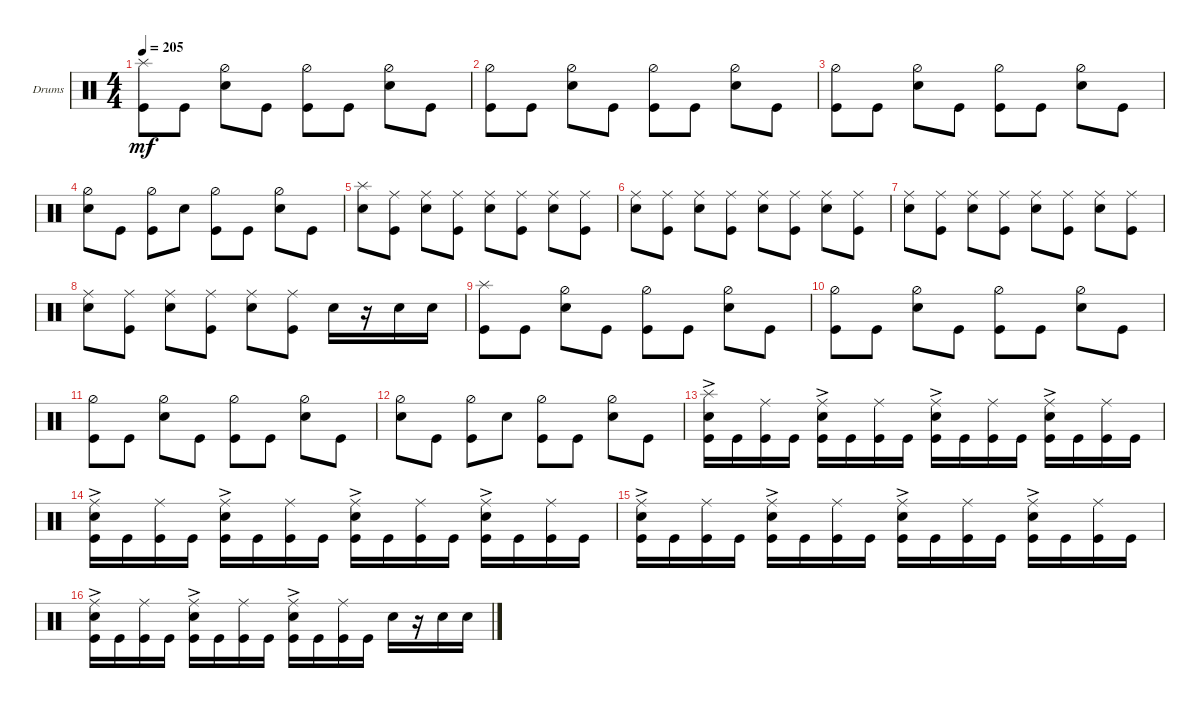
\bracketExtendMode groupsimilarinstruments
\firstSystemTrackNameOrientation horizontal
\otherSystemsTrackNameOrientation horizontal
\track ("Drumkit" "Drums") {instrument percussion}
\staff {score}
\articulation defaults
\ts (4 4)
\tempo 205
\clef neutral
\ks c
("Kick (hit)" "Splash (hit)").8{dy mf} "Kick (hit)".8 ("Snare (hit) 2" "Hi-Hat (half)").8 "Kick (hit)".8 ("Kick (hit)" "Hi-Hat (half)").8 "Kick (hit)".8 ("Snare (hit) 2" "Hi-Hat (half)").8 "Kick (hit)".8 |
("Kick (hit)" "Hi-Hat (half)").8 "Kick (hit)".8 ("Snare (hit) 2" "Hi-Hat (half)").8 "Kick (hit)".8 ("Kick (hit)" "Hi-Hat (half)").8 "Kick (hit)".8 ("Snare (hit) 2" "Hi-Hat (half)").8 "Kick (hit)".8 |
("Kick (hit)" "Hi-Hat (half)").8 "Kick (hit)".8 ("Snare (hit) 2" "Hi-Hat (half)").8 "Kick (hit)".8 ("Kick (hit)" "Hi-Hat (half)").8 "Kick (hit)".8 ("Snare (hit) 2" "Hi-Hat (half)").8 "Kick (hit)".8 |
("Snare (hit) 2" "Hi-Hat (half)").8 "Kick (hit)".8 ("Kick (hit)" "Hi-Hat (half)").8 "Snare (hit) 2".8 ("Kick (hit)" "Hi-Hat (half)").8 "Kick (hit)".8 ("Snare (hit) 2" "Hi-Hat (half)").8 "Kick (hit)".8 |
("Snare (hit) 2" "Splash (hit)").8 ("Kick (hit)" "Ride (middle)").8 ("Snare (hit) 2" "Ride (middle)").8 ("Kick (hit)" "Ride (middle)").8 ("Snare (hit) 2" "Ride (middle)").8 ("Kick (hit)" "Ride (middle)").8 ("Snare (hit) 2" "Ride (middle)").8 ("Kick (hit)" "Ride (middle)").8 |
("Snare (hit) 2" "Ride (middle)").8 ("Kick (hit)" "Ride (middle)").8 ("Snare (hit) 2" "Ride (middle)").8 ("Kick (hit)" "Ride (middle)").8 ("Snare (hit) 2" "Ride (middle)").8 ("Kick (hit)" "Ride (middle)").8 ("Snare (hit) 2" "Ride (middle)").8 ("Kick (hit)" "Ride (middle)").8 |
("Snare (hit) 2" "Ride (middle)").8 ("Kick (hit)" "Ride (middle)").8 ("Snare (hit) 2" "Ride (middle)").8 ("Kick (hit)" "Ride (middle)").8 ("Snare (hit) 2" "Ride (middle)").8 ("Kick (hit)" "Ride (middle)").8 ("Snare (hit) 2" "Ride (middle)").8 ("Kick (hit)" "Ride (middle)").8 |
("Snare (hit) 2" "Ride (middle)").8 ("Kick (hit)" "Ride (middle)").8 ("Snare (hit) 2" "Ride (middle)").8 ("Kick (hit)" "Ride (middle)").8 ("Snare (hit) 2" "Ride (middle)").8 ("Kick (hit)" "Ride (middle)").8 "Snare (hit) 2".16 r.16 "Snare (hit) 2".16 "Snare (hit) 2".16 |
("Kick (hit)" "Splash (hit)").8 "Kick (hit)".8 ("Snare (hit) 2" "Hi-Hat (half)").8 "Kick (hit)".8 ("Kick (hit)" "Hi-Hat (half)").8 "Kick (hit)".8 ("Snare (hit) 2" "Hi-Hat (half)").8 "Kick (hit)".8 |
("Kick (hit)" "Hi-Hat (half)").8 "Kick (hit)".8 ("Snare (hit) 2" "Hi-Hat (half)").8 "Kick (hit)".8 ("Kick (hit)" "Hi-Hat (half)").8 "Kick (hit)".8 ("Snare (hit) 2" "Hi-Hat (half)").8 "Kick (hit)".8 |
("Kick (hit)" "Hi-Hat (half)").8 "Kick (hit)".8 ("Snare (hit) 2" "Hi-Hat (half)").8 "Kick (hit)".8 ("Kick (hit)" "Hi-Hat (half)").8 "Kick (hit)".8 ("Snare (hit) 2" "Hi-Hat (half)").8 "Kick (hit)".8 |
("Snare (hit) 2" "Hi-Hat (half)").8 "Kick (hit)".8 ("Kick (hit)" "Hi-Hat (half)").8 "Snare (hit) 2".8 ("Kick (hit)" "Hi-Hat (half)").8 "Kick (hit)".8 ("Snare (hit) 2" "Hi-Hat (half)").8 "Kick (hit)".8 |
("Snare (hit) 2"{ac} "Kick (hit)" "Splash (hit)").16 "Kick (hit)".16 ("Kick (hit)" "Ride (middle)").16 "Kick (hit)".16 ("Snare (hit) 2"{ac} "Kick (hit)" "Ride (middle)").16 "Kick (hit)".16 ("Kick (hit)" "Ride (middle)").16 "Kick (hit)".16 ("Snare (hit) 2"{ac} "Kick (hit)" "Ride (middle)").16 "Kick (hit)".16 ("Kick (hit)" "Ride (middle)").16 "Kick (hit)".16 ("Snare (hit) 2"{ac} "Kick (hit)" "Ride (middle)").16 "Kick (hit)".16 ("Kick (hit)" "Ride (middle)").16 "Kick (hit)".16 |
("Snare (hit) 2"{ac} "Kick (hit)" "Ride (middle)").16 "Kick (hit)".16 ("Kick (hit)" "Ride (middle)").16 "Kick (hit)".16 ("Snare (hit) 2"{ac} "Kick (hit)" "Ride (middle)").16 "Kick (hit)".16 ("Kick (hit)" "Ride (middle)").16 "Kick (hit)".16 ("Snare (hit) 2"{ac} "Kick (hit)" "Ride (middle)").16 "Kick (hit)".16 ("Kick (hit)" "Ride (middle)").16 "Kick (hit)".16 ("Snare (hit) 2"{ac} "Kick (hit)" "Ride (middle)").16 "Kick (hit)".16 ("Kick (hit)" "Ride (middle)").16 "Kick (hit)".16 |
("Snare (hit) 2"{ac} "Kick (hit)" "Ride (middle)").16 "Kick (hit)".16 ("Kick (hit)" "Ride (middle)").16 "Kick (hit)".16 ("Snare (hit) 2"{ac} "Kick (hit)" "Ride (middle)").16 "Kick (hit)".16 ("Kick (hit)" "Ride (middle)").16 "Kick (hit)".16 ("Snare (hit) 2"{ac} "Kick (hit)" "Ride (middle)").16 "Kick (hit)".16 ("Kick (hit)" "Ride (middle)").16 "Kick (hit)".16 ("Snare (hit) 2"{ac} "Kick (hit)" "Ride (middle)").16 "Kick (hit)".16 ("Kick (hit)" "Ride (middle)").16 "Kick (hit)".16 |
("Snare (hit) 2"{ac} "Kick (hit)" "Ride (middle)").16 "Kick (hit)".16 ("Kick (hit)" "Ride (middle)").16 "Kick (hit)".16 ("Snare (hit) 2"{ac} "Kick (hit)" "Ride (middle)").16 "Kick (hit)".16 ("Kick (hit)" "Ride (middle)").16 "Kick (hit)".16 ("Snare (hit) 2"{ac} "Kick (hit)" "Ride (middle)").16 "Kick (hit)".16 ("Kick (hit)" "Ride (middle)").16 "Kick (hit)".16 "Snare (hit) 2".16 r.16 "Snare (hit) 2".16 "Snare (hit) 2".16
